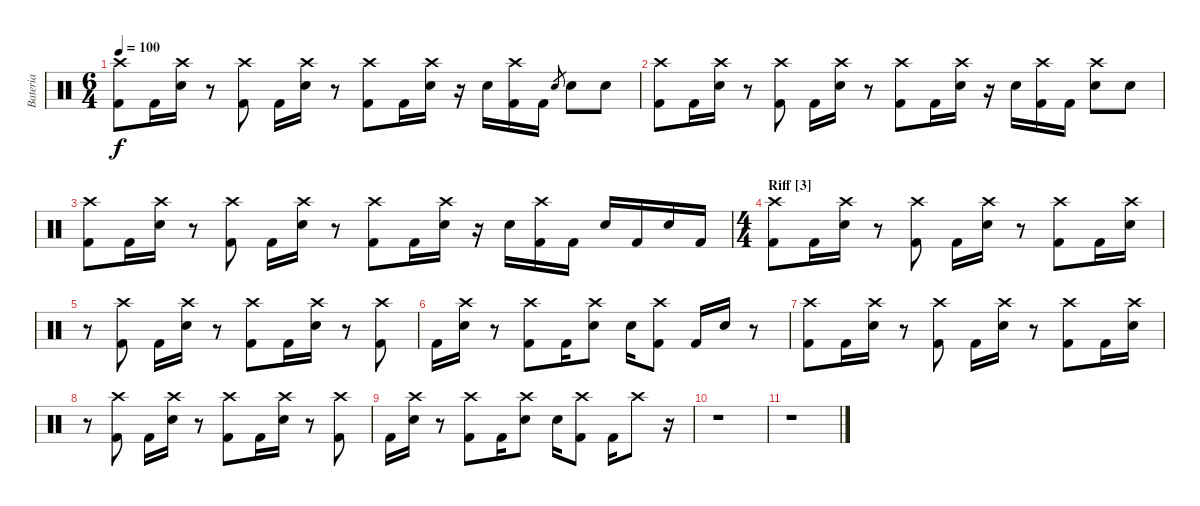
\track ("Bateria" "Bateria") {instrument percussion}
\staff {score}
\articulation defaults
\ts (6 4)
\tempo 100
\clef neutral
\ks c
("Crash high (hit)" "Kick (hit) 2").8{dy f} "Kick (hit) 2".16 ("Crash high (hit)" "Electric Snare (hit)").16 r.8 ("Crash high (hit)" "Kick (hit) 2").8 "Kick (hit) 2".16 ("Crash high (hit)" "Electric Snare (hit)").16 r.8 ("Crash high (hit)" "Kick (hit) 2").8 "Kick (hit) 2".16 ("Crash high (hit)" "Electric Snare (hit)").16 r.16 "Electric Snare (hit)".16 ("Crash high (hit)" "Kick (hit) 2").16 "Kick (hit) 2".16 "Electric Snare (hit)".8{gr} "Electric Snare (hit)".8 "Electric Snare (hit)".8 |
("Crash high (hit)" "Kick (hit) 2").8 "Kick (hit) 2".16 ("Crash high (hit)" "Electric Snare (hit)").16 r.8 ("Crash high (hit)" "Kick (hit) 2").8 "Kick (hit) 2".16 ("Crash high (hit)" "Electric Snare (hit)").16 r.8 ("Crash high (hit)" "Kick (hit) 2").8 "Kick (hit) 2".16 ("Crash high (hit)" "Electric Snare (hit)").16 r.16 "Electric Snare (hit)".16 ("Crash high (hit)" "Kick (hit) 2").16 "Kick (hit) 2".16 ("Crash high (hit)" "Electric Snare (hit)").8 "Electric Snare (hit)".8 |
("Crash high (hit)" "Kick (hit) 2").8 "Kick (hit) 2".16 ("Crash high (hit)" "Electric Snare (hit)").16 r.8 ("Crash high (hit)" "Kick (hit) 2").8 "Kick (hit) 2".16 ("Crash high (hit)" "Electric Snare (hit)").16 r.8 ("Crash high (hit)" "Kick (hit) 2").8 "Kick (hit) 2".16 ("Crash high (hit)" "Electric Snare (hit)").16 r.16 "Electric Snare (hit)".16 ("Crash high (hit)" "Kick (hit) 2").16 "Kick (hit) 2".16 "Electric Snare (hit)".16 "Kick (hit) 2".16 "Electric Snare (hit)".16 "Kick (hit) 2".16 |
\ts (4 4)
\section ("" "Riff [3]")
("Crash high (hit)" "Kick (hit) 2").8 "Kick (hit) 2".16 ("Crash high (hit)" "Electric Snare (hit)").16 r.8 ("Crash high (hit)" "Kick (hit) 2").8 "Kick (hit) 2".16 ("Crash high (hit)" "Electric Snare (hit)").16 r.8 ("Crash high (hit)" "Kick (hit) 2").8 "Kick (hit) 2".16 ("Crash high (hit)" "Electric Snare (hit)").16 |
r.8 ("Crash high (hit)" "Kick (hit) 2").8 "Kick (hit) 2".16 ("Crash high (hit)" "Electric Snare (hit)").16 r.8 ("Crash high (hit)" "Kick (hit) 2").8 "Kick (hit) 2".16 ("Crash high (hit)" "Electric Snare (hit)").16 r.8 ("Crash high (hit)" "Kick (hit) 2").8 |
"Kick (hit) 2".16 ("Crash high (hit)" "Electric Snare (hit)").16 r.8 ("Crash high (hit)" "Kick (hit) 2").8 "Kick (hit) 2".16 ("Crash high (hit)" "Electric Snare (hit)").8 "Electric Snare (hit)".16 ("Crash high (hit)" "Kick (hit) 2").8 "Kick (hit) 2".16 "Electric Snare (hit)".16 r.8 |
("Crash high (hit)" "Kick (hit) 2").8 "Kick (hit) 2".16 ("Crash high (hit)" "Electric Snare (hit)").16 r.8 ("Crash high (hit)" "Kick (hit) 2").8 "Kick (hit) 2".16 ("Crash high (hit)" "Electric Snare (hit)").16 r.8 ("Crash high (hit)" "Kick (hit) 2").8 "Kick (hit) 2".16 ("Crash high (hit)" "Electric Snare (hit)").16 |
r.8 ("Crash high (hit)" "Kick (hit) 2").8 "Kick (hit) 2".16 ("Crash high (hit)" "Electric Snare (hit)").16 r.8 ("Crash high (hit)" "Kick (hit) 2").8 "Kick (hit) 2".16 ("Crash high (hit)" "Electric Snare (hit)").16 r.8 ("Crash high (hit)" "Kick (hit) 2").8 |
"Kick (hit) 2".16 ("Crash high (hit)" "Electric Snare (hit)").16 r.8 ("Crash high (hit)" "Kick (hit) 2").8 "Kick (hit) 2".16 ("Crash high (hit)" "Electric Snare (hit)").8 "Electric Snare (hit)".16 ("Crash high (hit)" "Kick (hit) 2").8 "Kick (hit) 2".16 "Crash high (hit)".8 r.16 |
r.1 |
r.1
